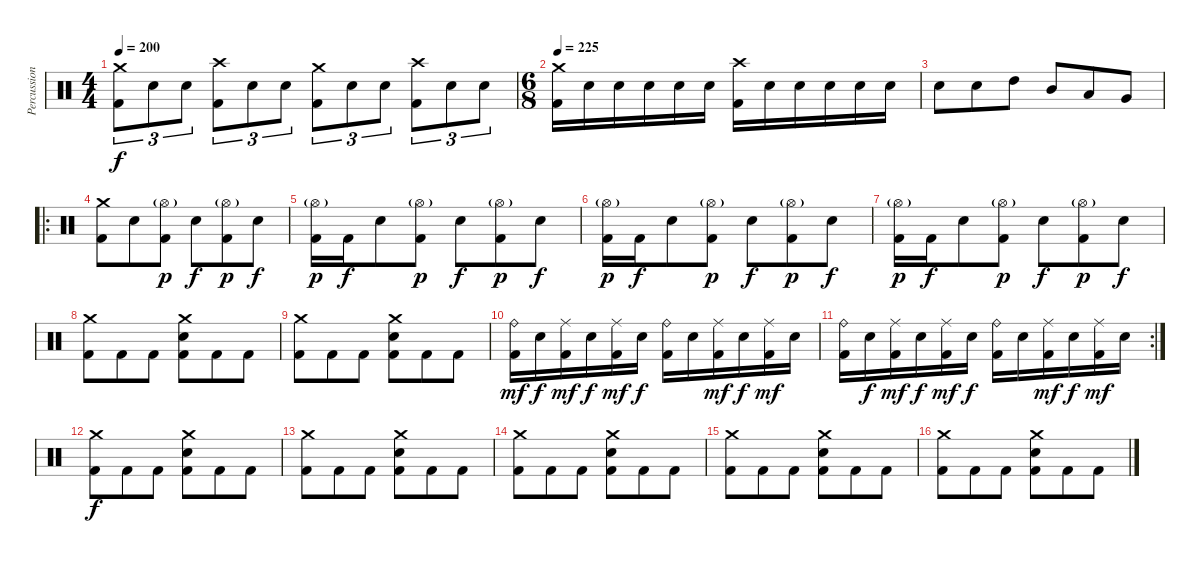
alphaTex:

\track ("Percussion" "Percussion") {instrument percussion}
\staff {score}
\articulation defaults
\ts (4 4)
\tempo 200
\clef neutral
\ks c
("Crash medium (hit)" "Kick (hit) 2").8{tu (3 2) dy f} "Electric Snare (hit)".8{tu (3 2)} "Electric Snare (hit)".8{tu (3 2)} ("Crash high (hit)" "Kick (hit) 2").8{tu (3 2)} "Electric Snare (hit)".8{tu (3 2)} "Electric Snare (hit)".8{tu (3 2)} ("Crash medium (hit)" "Kick (hit) 2").8{tu (3 2)} "Electric Snare (hit)".8{tu (3 2)} "Electric Snare (hit)".8{tu (3 2)} ("Crash high (hit)" "Kick (hit) 2").8{tu (3 2)} "Electric Snare (hit)".8{tu (3 2)} "Electric Snare (hit)".8{tu (3 2)} |
\ts (6 8)
\tempo 225
("Crash medium (hit)" "Kick (hit) 2").16 "Electric Snare (hit)".16 "Electric Snare (hit)".16 "Electric Snare (hit)".16 "Electric Snare (hit)".16 "Electric Snare (hit)".16 ("Crash high (hit)" "Kick (hit) 2").16 "Electric Snare (hit)".16 "Electric Snare (hit)".16 "Electric Snare (hit)".16 "Electric Snare (hit)".16 "Electric Snare (hit)".16 |
"Electric Snare (hit)".8 "Electric Snare (hit)".8 "High Tom (hit)".8 "Mid Tom (hit)".8 "Low Tom (hit)".8 "Very Low Tom (hit)".8 |
\ro
("Crash medium (hit)" "Kick (hit) 2").8 "Electric Snare (hit)".8 ("Hi-Hat (open)"{g} "Kick (hit) 2").8{dy p} "Electric Snare (hit)".8{dy f} ("Hi-Hat (open)"{g} "Kick (hit) 2").8{dy p} "Electric Snare (hit)".8{dy f} |
("Hi-Hat (open)"{g} "Kick (hit) 2").16{dy p} "Kick (hit) 2".16{dy f} "Electric Snare (hit)".8 ("Hi-Hat (open)"{g} "Kick (hit) 2").8{dy p} "Electric Snare (hit)".8{dy f} ("Hi-Hat (open)"{g} "Kick (hit) 2").8{dy p} "Electric Snare (hit)".8{dy f} |
("Hi-Hat (open)"{g} "Kick (hit) 2").16{dy p} "Kick (hit) 2".16{dy f} "Electric Snare (hit)".8 ("Hi-Hat (open)"{g} "Kick (hit) 2").8{dy p} "Electric Snare (hit)".8{dy f} ("Hi-Hat (open)"{g} "Kick (hit) 2").8{dy p} "Electric Snare (hit)".8{dy f} |
("Hi-Hat (open)"{g} "Kick (hit) 2").16{dy p} "Kick (hit) 2".16{dy f} "Electric Snare (hit)".8 ("Hi-Hat (open)"{g} "Kick (hit) 2").8{dy p} "Electric Snare (hit)".8{dy f} ("Hi-Hat (open)"{g} "Kick (hit) 2").8{dy p} "Electric Snare (hit)".8{dy f} |
("Crash medium (hit)" "Kick (hit) 2").8 "Kick (hit) 2".8 "Kick (hit) 2".8 ("Crash medium (hit)" "Electric Snare (hit)" "Kick (hit) 2").8 "Kick (hit) 2".8 "Kick (hit) 2".8 |
("Crash medium (hit)" "Kick (hit) 2").8 "Kick (hit) 2".8 "Kick (hit) 2".8 ("Crash medium (hit)" "Electric Snare (hit)" "Kick (hit) 2").8 "Kick (hit) 2".8 "Kick (hit) 2".8 |
("Ride (bell)" "Kick (hit) 2").16{dy mf} "Electric Snare (hit)".16{dy f} ("Ride (middle)" "Kick (hit) 2").16{dy mf} "Electric Snare (hit)".16{dy f} ("Ride (middle)" "Kick (hit) 2").16{dy mf} "Electric Snare (hit)".16{dy f} ("Ride (bell)" "Kick (hit) 2").16 "Electric Snare (hit)".16 ("Ride (middle)" "Kick (hit) 2").16{dy mf} "Electric Snare (hit)".16{dy f} ("Ride (middle)" "Kick (hit) 2").16{dy mf} "Electric Snare (hit)".16 |
\rc 2
("Ride (bell)" "Kick (hit) 2").16 "Electric Snare (hit)".16{dy f} ("Ride (middle)" "Kick (hit) 2").16{dy mf} "Electric Snare (hit)".16{dy f} ("Ride (middle)" "Kick (hit) 2").16{dy mf} "Electric Snare (hit)".16{dy f} ("Ride (bell)" "Kick (hit) 2").16 "Electric Snare (hit)".16 ("Ride (middle)" "Kick (hit) 2").16{dy mf} "Electric Snare (hit)".16{dy f} ("Ride (middle)" "Kick (hit) 2").16{dy mf} "Electric Snare (hit)".16 |
("Crash medium (hit)" "Kick (hit) 2").8{dy f} "Kick (hit) 2".8 "Kick (hit) 2".8 ("Crash medium (hit)" "Electric Snare (hit)" "Kick (hit) 2").8 "Kick (hit) 2".8 "Kick (hit) 2".8 |
("Crash medium (hit)" "Kick (hit) 2").8 "Kick (hit) 2".8 "Kick (hit) 2".8 ("Crash medium (hit)" "Electric Snare (hit)" "Kick (hit) 2").8 "Kick (hit) 2".8 "Kick (hit) 2".8 |
("Crash medium (hit)" "Kick (hit) 2").8 "Kick (hit) 2".8 "Kick (hit) 2".8 ("Crash medium (hit)" "Electric Snare (hit)" "Kick (hit) 2").8 "Kick (hit) 2".8 "Kick (hit) 2".8 |
("Crash medium (hit)" "Kick (hit) 2").8 "Kick (hit) 2".8 "Kick (hit) 2".8 ("Crash medium (hit)" "Electric Snare (hit)" "Kick (hit) 2").8 "Kick (hit) 2".8 "Kick (hit) 2".8 |
("Crash medium (hit)" "Kick (hit) 2").8 "Kick (hit) 2".8 "Kick (hit) 2".8 ("Crash medium (hit)" "Electric Snare (hit)" "Kick (hit) 2").8 "Kick (hit) 2".8 "Kick (hit) 2".8
